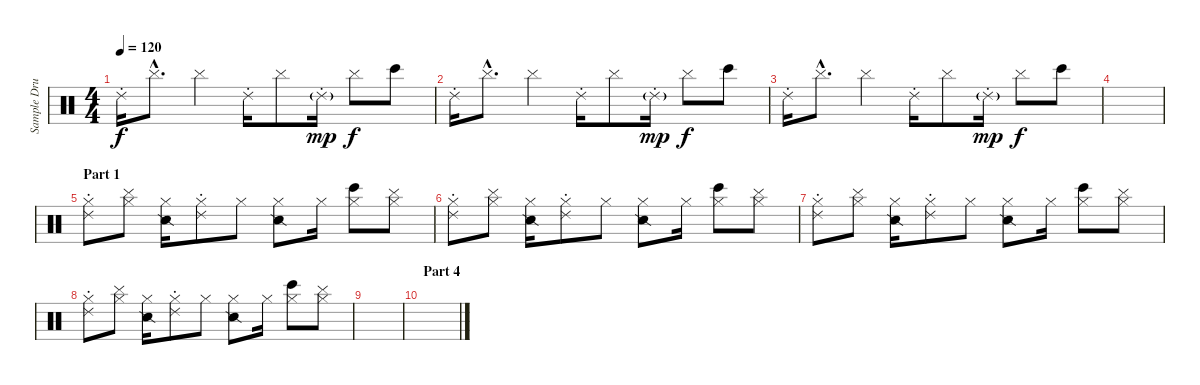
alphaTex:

\track ("Sample Drums" "Sample Dru") {instrument percussion}
\staff {score}
\articulation defaults
\ts (4 4)
\tempo 120
\clef neutral
\ks c "Ride (choke) 2".16{dy f} "Cymbal (hit)"{hac}.8{d} "Cymbal (hit)".4 "Ride (choke) 2".16 "Cymbal (hit)".8 "Ride (choke) 2"{g}.16{dy mp} "Cymbal (hit)".8{dy f} "Bongo High (hit)".8
|
"Ride (choke) 2".16 "Cymbal (hit)"{hac}.8{d} "Cymbal (hit)".4 "Ride (choke) 2".16 "Cymbal (hit)".8 "Ride (choke) 2"{g}.16{dy mp} "Cymbal (hit)".8{dy f} "Bongo High (hit)".8 |
"Ride (choke) 2".16 "Cymbal (hit)"{hac}.8{d} "Cymbal (hit)".4 "Ride (choke) 2".16 "Cymbal (hit)".8 "Ride (choke) 2"{g}.16{dy mp} "Cymbal (hit)".8{dy f} "Bongo High (hit)".8 |
|
\section ("" "Part 1")
("Hi-Hat (closed)" "Ride (choke) 2").8 ("Hi-Hat (closed)" "Cymbal (hit)").8 ("Hi-Hat (closed)" "Snare (side stick) 2").16 ("Hi-Hat (closed)" "Ride (choke) 2").8 "Hi-Hat (closed)".8 ("Hi-Hat (closed)" "Snare (side stick) 2").8 "Hi-Hat (closed)".16 ("Hi-Hat (closed)" "Bongo High (hit)").8 ("Hi-Hat (closed)" "Cymbal (hit)").8 |
("Hi-Hat (closed)" "Ride (choke) 2").8 ("Hi-Hat (closed)" "Cymbal (hit)").8 ("Hi-Hat (closed)" "Snare (side stick) 2").16 ("Hi-Hat (closed)" "Ride (choke) 2").8 "Hi-Hat (closed)".8 ("Hi-Hat (closed)" "Snare (side stick) 2").8 "Hi-Hat (closed)".16 ("Hi-Hat (closed)" "Bongo High (hit)").8 ("Hi-Hat (closed)" "Cymbal (hit)").8 |
("Hi-Hat (closed)" "Ride (choke) 2").8 ("Hi-Hat (closed)" "Cymbal (hit)").8 ("Hi-Hat (closed)" "Snare (side stick) 2").16 ("Hi-Hat (closed)" "Ride (choke) 2").8 "Hi-Hat (closed)".8 ("Hi-Hat (closed)" "Snare (side stick) 2").8 "Hi-Hat (closed)".16 ("Hi-Hat (closed)" "Bongo High (hit)").8 ("Hi-Hat (closed)" "Cymbal (hit)").8 |
("Hi-Hat (closed)" "Ride (choke) 2").8 ("Hi-Hat (closed)" "Cymbal (hit)").8 ("Hi-Hat (closed)" "Snare (side stick) 2").16 ("Hi-Hat (closed)" "Ride (choke) 2").8 "Hi-Hat (closed)".8 ("Hi-Hat (closed)" "Snare (side stick) 2").8 "Hi-Hat (closed)".16 ("Hi-Hat (closed)" "Bongo High (hit)").8 ("Hi-Hat (closed)" "Cymbal (hit)").8 |
|
\section ("" "Part 4")
